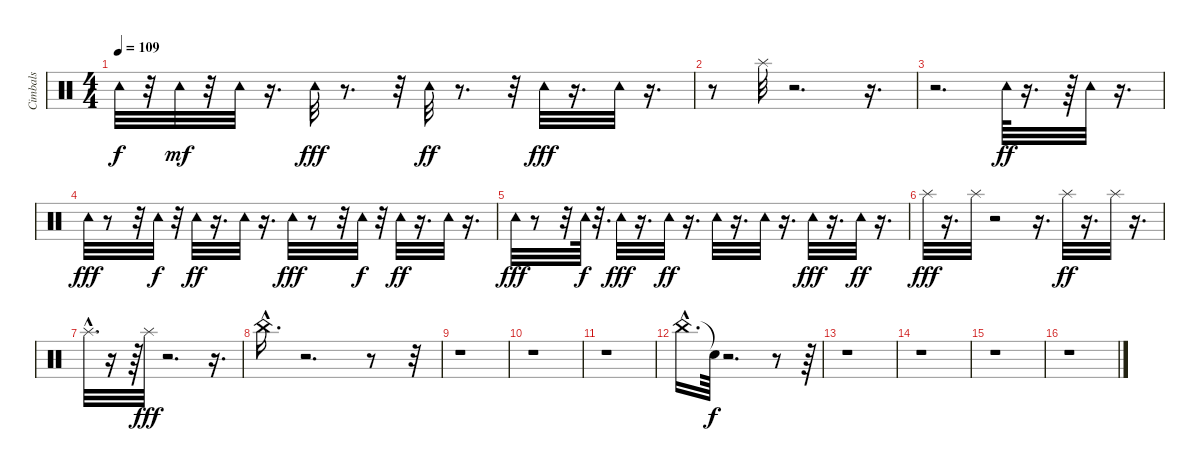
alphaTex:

\track ("Cimbals" "Cimbals") {instrument percussion}
\staff {score}
\articulation defaults
\ts (4 4)
\tempo 109
\clef neutral
\ks c "Tambourine (hit)".32{dy f}
r.32 "Tambourine (hit)".32{dy mf} r.32 "Tambourine (hit)".32 r.16{d} "Tambourine (hit)".32{dy fff} r.8{d} r.32 "Tambourine (hit)".32{dy ff} r.8{d} r.32 "Tambourine (hit)".32{dy fff} r.16{d} "Tambourine (hit)".32 r.16{d} |
r.8 "Splash (hit)".32 r.2{d} r.16{d} |
r.2{d} "Tambourine (hit)".64{dy ff} r.16{d} r.64 "Tambourine (hit)".32 r.16{d} |
"Tambourine (hit)".32{dy fff} r.8 r.32 "Tambourine (hit)".32{dy f} r.32 "Tambourine (hit)".32{dy ff} r.16{d} "Tambourine (hit)".32 r.16{d} "Tambourine (hit)".32{dy fff} r.8 r.32 "Tambourine (hit)".32{dy f} r.32 "Tambourine (hit)".32{dy ff} r.16{d} "Tambourine (hit)".32 r.16{d} |
"Tambourine (hit)".32{dy fff} r.8 r.32 "Tambourine (hit)".64{dy f} r.32{d} "Tambourine (hit)".32{dy fff} r.16{d} "Tambourine (hit)".32{dy ff} r.16{d} "Tambourine (hit)".32 r.16{d} "Tambourine (hit)".32 r.16{d} "Tambourine (hit)".32{dy fff} r.16{d} "Tambourine (hit)".32{dy ff} r.16{d} |
"Splash (hit)".32{dy fff} r.16{d} "Splash (hit)".32 r.2 r.16{d} "Splash (hit)".32{dy ff} r.16{d} "Splash (hit)".32 r.16{d} |
"Splash (hit)"{hac}.32{d} r.16 r.64 "Splash (hit)".32{dy fff} r.2{d} r.16{d} |
"China (choke)"{hac}.16{d} r.2{d} r.8 r.32 |
r.1 |
r.1 |
r.1 |
"China (choke)"{hac}.16{d} "Snare (hit)"{t}.64{dy f} r.2{d} r.8 r.64 |
r.1 |
r.1 |
r.1 |
r.1
